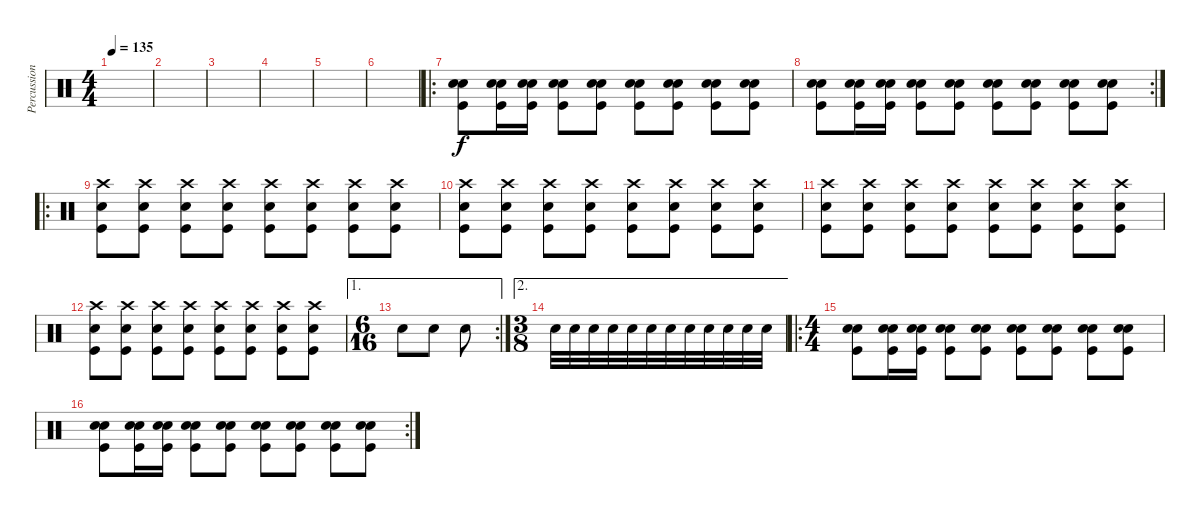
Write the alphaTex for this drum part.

\track ("Percussion" "Percussion") {instrument percussion}
\staff {score}
\articulation defaults
\ts (4 4)
\tempo 135
\clef neutral
\ks c
|
|
|
|
|
|
\ro
("Snare (hit) 2" "Kick (hit)" "Hand Clap (hit)").8 ("Snare (hit) 2" "Kick (hit)" "Hand Clap (hit)").16 ("Snare (hit) 2" "Kick (hit)" "Hand Clap (hit)").16 ("Snare (hit) 2" "Kick (hit)" "Hand Clap (hit)").8 ("Snare (hit) 2" "Kick (hit)" "Hand Clap (hit)").8 ("Snare (hit) 2" "Kick (hit)" "Hand Clap (hit)").8 ("Snare (hit) 2" "Kick (hit)" "Hand Clap (hit)").8 ("Snare (hit) 2" "Kick (hit)" "Hand Clap (hit)").8 ("Snare (hit) 2" "Kick (hit)" "Hand Clap (hit)").8 |
\rc 2
("Snare (hit) 2" "Kick (hit)" "Hand Clap (hit)").8 ("Snare (hit) 2" "Kick (hit)" "Hand Clap (hit)").16 ("Snare (hit) 2" "Kick (hit)" "Hand Clap (hit)").16 ("Snare (hit) 2" "Kick (hit)" "Hand Clap (hit)").8 ("Snare (hit) 2" "Kick (hit)" "Hand Clap (hit)").8 ("Snare (hit) 2" "Kick (hit)" "Hand Clap (hit)").8 ("Snare (hit) 2" "Kick (hit)" "Hand Clap (hit)").8 ("Snare (hit) 2" "Kick (hit)" "Hand Clap (hit)").8 ("Snare (hit) 2" "Kick (hit)" "Hand Clap (hit)").8 |
\ro
("Snare (hit) 2" "Crash high (hit)" "Kick (hit)").8 ("Crash high (hit)" "Snare (hit) 2" "Kick (hit)").8 ("Snare (hit) 2" "Crash high (hit)" "Kick (hit)").8 ("Crash high (hit)" "Snare (hit) 2" "Kick (hit)").8 ("Snare (hit) 2" "Crash high (hit)" "Kick (hit)").8 ("Crash high (hit)" "Snare (hit) 2" "Kick (hit)").8 ("Snare (hit) 2" "Crash high (hit)" "Kick (hit)").8 ("Crash high (hit)" "Snare (hit) 2" "Kick (hit)").8 |
("Snare (hit) 2" "Crash high (hit)" "Kick (hit)").8 ("Snare (hit) 2" "Crash high (hit)" "Kick (hit)").8 ("Snare (hit) 2" "Crash high (hit)" "Kick (hit)").8 ("Snare (hit) 2" "Crash high (hit)" "Kick (hit)").8 ("Snare (hit) 2" "Crash high (hit)" "Kick (hit)").8 ("Snare (hit) 2" "Crash high (hit)" "Kick (hit)").8 ("Snare (hit) 2" "Crash high (hit)" "Kick (hit)").8 ("Snare (hit) 2" "Crash high (hit)" "Kick (hit)").8 |
("Snare (hit) 2" "Crash high (hit)" "Kick (hit)").8 ("Snare (hit) 2" "Crash high (hit)" "Kick (hit)").8 ("Snare (hit) 2" "Crash high (hit)" "Kick (hit)").8 ("Snare (hit) 2" "Crash high (hit)" "Kick (hit)").8 ("Snare (hit) 2" "Crash high (hit)" "Kick (hit)").8 ("Snare (hit) 2" "Crash high (hit)" "Kick (hit)").8 ("Snare (hit) 2" "Crash high (hit)" "Kick (hit)").8 ("Snare (hit) 2" "Crash high (hit)" "Kick (hit)").8 |
("Snare (hit) 2" "Crash high (hit)" "Kick (hit)").8 ("Snare (hit) 2" "Crash high (hit)" "Kick (hit)").8 ("Snare (hit) 2" "Crash high (hit)" "Kick (hit)").8 ("Snare (hit) 2" "Crash high (hit)" "Kick (hit)").8 ("Snare (hit) 2" "Crash high (hit)" "Kick (hit)").8 ("Snare (hit) 2" "Crash high (hit)" "Kick (hit)").8 ("Snare (hit) 2" "Crash high (hit)" "Kick (hit)").8 ("Snare (hit) 2" "Crash high (hit)" "Kick (hit)").8 |
\ae 1
\rc 2
\ts (6 16)
"Snare (hit) 2".8 "Snare (hit) 2".8 "Snare (hit) 2".8 |
\ae 2
\ts (3 8)
"Snare (hit) 2".32 "Snare (hit) 2".32 "Snare (hit) 2".32 "Snare (hit) 2".32 "Snare (hit) 2".32 "Snare (hit) 2".32 "Snare (hit) 2".32 "Snare (hit) 2".32 "Snare (hit) 2".32 "Snare (hit) 2".32 "Snare (hit) 2".32 "Snare (hit) 2".32 |
\ro
\ts (4 4)
("Snare (hit) 2" "Kick (hit)" "Hand Clap (hit)").8 ("Snare (hit) 2" "Kick (hit)" "Hand Clap (hit)").16 ("Snare (hit) 2" "Kick (hit)" "Hand Clap (hit)").16 ("Snare (hit) 2" "Kick (hit)" "Hand Clap (hit)").8 ("Snare (hit) 2" "Kick (hit)" "Hand Clap (hit)").8 ("Snare (hit) 2" "Kick (hit)" "Hand Clap (hit)").8 ("Snare (hit) 2" "Kick (hit)" "Hand Clap (hit)").8 ("Snare (hit) 2" "Kick (hit)" "Hand Clap (hit)").8 ("Snare (hit) 2" "Kick (hit)" "Hand Clap (hit)").8 |
\rc 2
("Snare (hit) 2" "Kick (hit)" "Hand Clap (hit)").8 ("Snare (hit) 2" "Kick (hit)" "Hand Clap (hit)").16 ("Snare (hit) 2" "Kick (hit)" "Hand Clap (hit)").16 ("Snare (hit) 2" "Kick (hit)" "Hand Clap (hit)").8 ("Snare (hit) 2" "Kick (hit)" "Hand Clap (hit)").8 ("Snare (hit) 2" "Kick (hit)" "Hand Clap (hit)").8 ("Snare (hit) 2" "Kick (hit)" "Hand Clap (hit)").8 ("Snare (hit) 2" "Kick (hit)" "Hand Clap (hit)").8 ("Snare (hit) 2" "Kick (hit)" "Hand Clap (hit)").8
